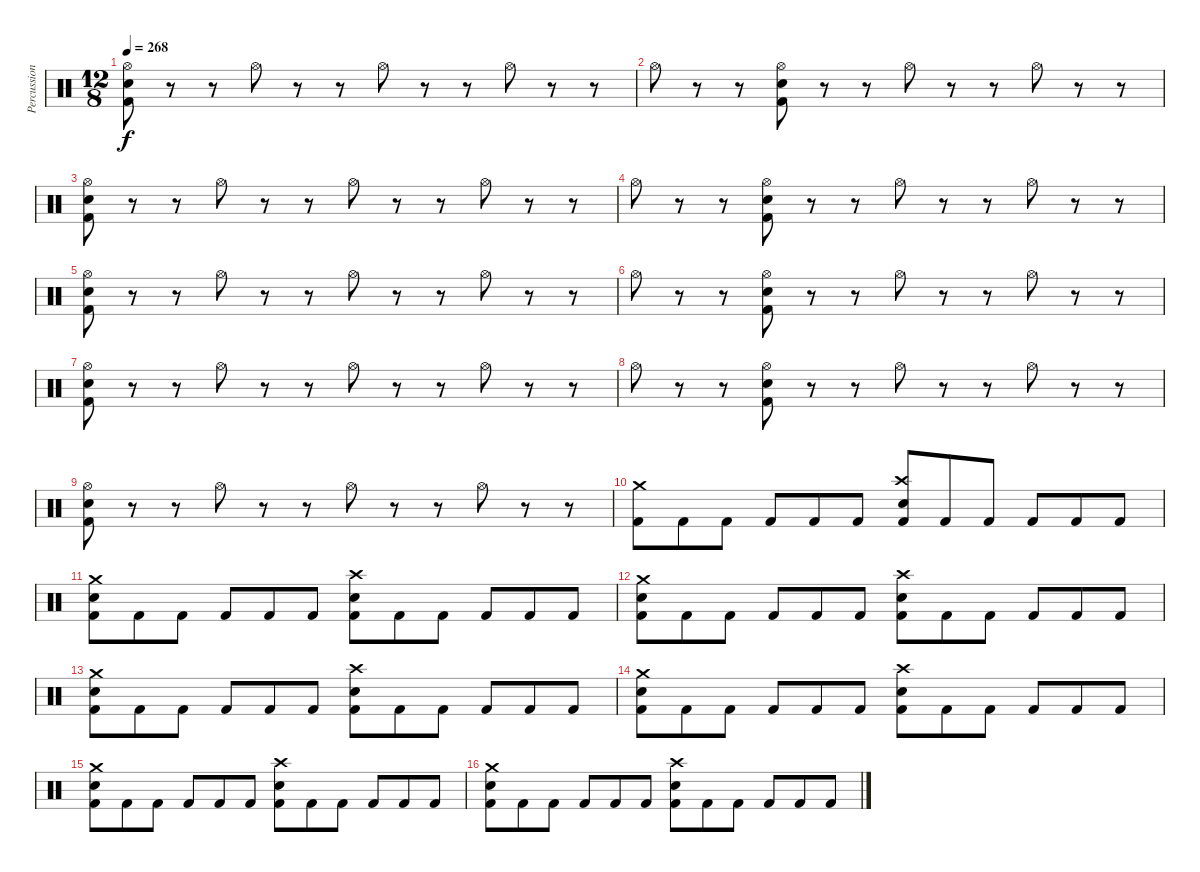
\track ("Percussion" "Percussion") {instrument percussion}
\staff {score}
\articulation defaults
\ts (12 8)
\tempo 268
\clef neutral
\ks c
("Hi-Hat (open)" "Electric Snare (hit)" "Kick (hit) 2").8{dy f} r.8 r.8 "Hi-Hat (open)".8 r.8 r.8 "Hi-Hat (open)".8 r.8 r.8 "Hi-Hat (open)".8 r.8 r.8 |
"Hi-Hat (open)".8 r.8 r.8 ("Hi-Hat (open)" "Electric Snare (hit)" "Kick (hit) 2").8 r.8 r.8 "Hi-Hat (open)".8 r.8 r.8 "Hi-Hat (open)".8 r.8 r.8 |
("Hi-Hat (open)" "Electric Snare (hit)" "Kick (hit) 2").8 r.8 r.8 "Hi-Hat (open)".8 r.8 r.8 "Hi-Hat (open)".8 r.8 r.8 "Hi-Hat (open)".8 r.8 r.8 |
"Hi-Hat (open)".8 r.8 r.8 ("Hi-Hat (open)" "Electric Snare (hit)" "Kick (hit) 2").8 r.8 r.8 "Hi-Hat (open)".8 r.8 r.8 "Hi-Hat (open)".8 r.8 r.8 |
("Hi-Hat (open)" "Electric Snare (hit)" "Kick (hit) 2").8 r.8 r.8 "Hi-Hat (open)".8 r.8 r.8 "Hi-Hat (open)".8 r.8 r.8 "Hi-Hat (open)".8 r.8 r.8 |
"Hi-Hat (open)".8 r.8 r.8 ("Hi-Hat (open)" "Electric Snare (hit)" "Kick (hit) 2").8 r.8 r.8 "Hi-Hat (open)".8 r.8 r.8 "Hi-Hat (open)".8 r.8 r.8 |
("Hi-Hat (open)" "Electric Snare (hit)" "Kick (hit) 2").8 r.8 r.8 "Hi-Hat (open)".8 r.8 r.8 "Hi-Hat (open)".8 r.8 r.8 "Hi-Hat (open)".8 r.8 r.8 |
"Hi-Hat (open)".8 r.8 r.8 ("Hi-Hat (open)" "Electric Snare (hit)" "Kick (hit) 2").8 r.8 r.8 "Hi-Hat (open)".8 r.8 r.8 "Hi-Hat (open)".8 r.8 r.8 |
("Hi-Hat (open)" "Electric Snare (hit)" "Kick (hit) 2").8 r.8 r.8 "Hi-Hat (open)".8 r.8 r.8 "Hi-Hat (open)".8 r.8 r.8 "Hi-Hat (open)".8 r.8 r.8 |
("Crash medium (hit)" "Kick (hit) 2").8 "Kick (hit) 2".8 "Kick (hit) 2".8 "Kick (hit) 2".8 "Kick (hit) 2".8 "Kick (hit) 2".8 ("Crash high (hit)" "Snare (hit) 2" "Kick (hit) 2").8 "Kick (hit) 2".8 "Kick (hit) 2".8 "Kick (hit) 2".8 "Kick (hit) 2".8 "Kick (hit) 2".8 |
("Crash medium (hit)" "Electric Snare (hit)" "Kick (hit) 2").8 "Kick (hit) 2".8 "Kick (hit) 2".8 "Kick (hit) 2".8 "Kick (hit) 2".8 "Kick (hit) 2".8 ("Crash high (hit)" "Electric Snare (hit)" "Kick (hit) 2").8 "Kick (hit) 2".8 "Kick (hit) 2".8 "Kick (hit) 2".8 "Kick (hit) 2".8 "Kick (hit) 2".8 |
("Crash medium (hit)" "Electric Snare (hit)" "Kick (hit) 2").8 "Kick (hit) 2".8 "Kick (hit) 2".8 "Kick (hit) 2".8 "Kick (hit) 2".8 "Kick (hit) 2".8 ("Crash high (hit)" "Electric Snare (hit)" "Kick (hit) 2").8 "Kick (hit) 2".8 "Kick (hit) 2".8 "Kick (hit) 2".8 "Kick (hit) 2".8 "Kick (hit) 2".8 |
("Crash medium (hit)" "Electric Snare (hit)" "Kick (hit) 2").8 "Kick (hit) 2".8 "Kick (hit) 2".8 "Kick (hit) 2".8 "Kick (hit) 2".8 "Kick (hit) 2".8 ("Crash high (hit)" "Electric Snare (hit)" "Kick (hit) 2").8 "Kick (hit) 2".8 "Kick (hit) 2".8 "Kick (hit) 2".8 "Kick (hit) 2".8 "Kick (hit) 2".8 |
("Crash medium (hit)" "Electric Snare (hit)" "Kick (hit) 2").8 "Kick (hit) 2".8 "Kick (hit) 2".8 "Kick (hit) 2".8 "Kick (hit) 2".8 "Kick (hit) 2".8 ("Crash high (hit)" "Electric Snare (hit)" "Kick (hit) 2").8 "Kick (hit) 2".8 "Kick (hit) 2".8 "Kick (hit) 2".8 "Kick (hit) 2".8 "Kick (hit) 2".8 |
("Crash medium (hit)" "Electric Snare (hit)" "Kick (hit) 2").8 "Kick (hit) 2".8 "Kick (hit) 2".8 "Kick (hit) 2".8 "Kick (hit) 2".8 "Kick (hit) 2".8 ("Crash high (hit)" "Electric Snare (hit)" "Kick (hit) 2").8 "Kick (hit) 2".8 "Kick (hit) 2".8 "Kick (hit) 2".8 "Kick (hit) 2".8 "Kick (hit) 2".8 |
("Crash medium (hit)" "Electric Snare (hit)" "Kick (hit) 2").8 "Kick (hit) 2".8 "Kick (hit) 2".8 "Kick (hit) 2".8 "Kick (hit) 2".8 "Kick (hit) 2".8 ("Crash high (hit)" "Electric Snare (hit)" "Kick (hit) 2").8 "Kick (hit) 2".8 "Kick (hit) 2".8 "Kick (hit) 2".8 "Kick (hit) 2".8 "Kick (hit) 2".8
